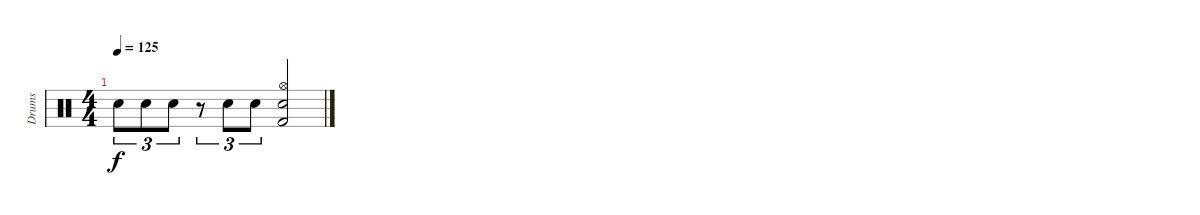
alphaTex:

\track ("Drums" "Drums") {instrument percussion}
\staff {score}
\articulation defaults
\ts (4 4)
\tempo 125
\clef neutral
\ks c "Snare (hit) 2".8{tu (3 2) dy f} "Snare (hit) 2".8{tu (3 2)} "Snare (hit) 2".8{tu (3 2)}
r.8{tu (3 2)} "Snare (hit) 2".8{tu (3 2)} "Snare (hit) 2".8{tu (3 2)} ("Hi-Hat (open)" "Snare (hit) 2" "Kick (hit) 2").2
